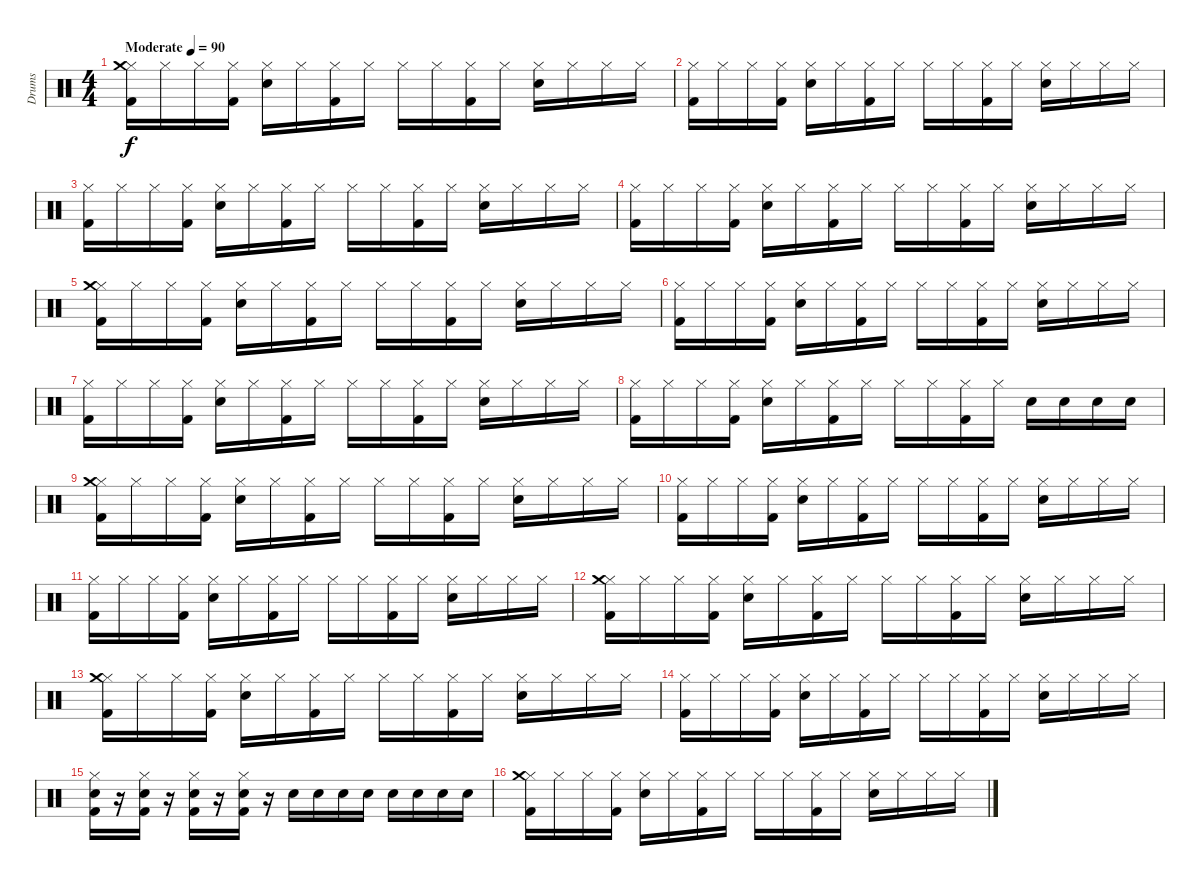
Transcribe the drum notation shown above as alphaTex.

\track ("Drums" "Drums") {instrument percussion}
\staff {score}
\articulation defaults
\ts (4 4)
\tempo (90 "Moderate")
\clef neutral
\ks c
("Hi-Hat (closed)" "Kick (hit) 2" "Crash medium (hit)").16{dy f} "Hi-Hat (closed)".16 "Hi-Hat (closed)".16 ("Hi-Hat (closed)" "Kick (hit) 2").16 ("Hi-Hat (closed)" "Snare (hit) 2").16 "Hi-Hat (closed)".16 ("Hi-Hat (closed)" "Kick (hit) 2").16 "Hi-Hat (closed)".16 "Hi-Hat (closed)".16 "Hi-Hat (closed)".16 ("Hi-Hat (closed)" "Kick (hit) 2").16 "Hi-Hat (closed)".16 ("Hi-Hat (closed)" "Snare (hit) 2").16 "Hi-Hat (closed)".16 "Hi-Hat (closed)".16 "Hi-Hat (closed)".16 |
("Hi-Hat (closed)" "Kick (hit) 2").16 "Hi-Hat (closed)".16 "Hi-Hat (closed)".16 ("Hi-Hat (closed)" "Kick (hit) 2").16 ("Hi-Hat (closed)" "Snare (hit) 2").16 "Hi-Hat (closed)".16 ("Hi-Hat (closed)" "Kick (hit) 2").16 "Hi-Hat (closed)".16 "Hi-Hat (closed)".16 "Hi-Hat (closed)".16 ("Hi-Hat (closed)" "Kick (hit) 2").16 "Hi-Hat (closed)".16 ("Hi-Hat (closed)" "Snare (hit) 2").16 "Hi-Hat (closed)".16 "Hi-Hat (closed)".16 "Hi-Hat (closed)".16 |
("Hi-Hat (closed)" "Kick (hit) 2").16 "Hi-Hat (closed)".16 "Hi-Hat (closed)".16 ("Hi-Hat (closed)" "Kick (hit) 2").16 ("Hi-Hat (closed)" "Snare (hit) 2").16 "Hi-Hat (closed)".16 ("Hi-Hat (closed)" "Kick (hit) 2").16 "Hi-Hat (closed)".16 "Hi-Hat (closed)".16 "Hi-Hat (closed)".16 ("Hi-Hat (closed)" "Kick (hit) 2").16 "Hi-Hat (closed)".16 ("Hi-Hat (closed)" "Snare (hit) 2").16 "Hi-Hat (closed)".16 "Hi-Hat (closed)".16 "Hi-Hat (closed)".16 |
("Hi-Hat (closed)" "Kick (hit) 2").16 "Hi-Hat (closed)".16 "Hi-Hat (closed)".16 ("Hi-Hat (closed)" "Kick (hit) 2").16 ("Hi-Hat (closed)" "Snare (hit) 2").16 "Hi-Hat (closed)".16 ("Hi-Hat (closed)" "Kick (hit) 2").16 "Hi-Hat (closed)".16 "Hi-Hat (closed)".16 "Hi-Hat (closed)".16 ("Hi-Hat (closed)" "Kick (hit) 2").16 "Hi-Hat (closed)".16 ("Hi-Hat (closed)" "Snare (hit) 2").16 "Hi-Hat (closed)".16 "Hi-Hat (closed)".16 "Hi-Hat (closed)".16 |
("Hi-Hat (closed)" "Kick (hit) 2" "Crash medium (hit)").16 "Hi-Hat (closed)".16 "Hi-Hat (closed)".16 ("Hi-Hat (closed)" "Kick (hit) 2").16 ("Hi-Hat (closed)" "Snare (hit) 2").16 "Hi-Hat (closed)".16 ("Hi-Hat (closed)" "Kick (hit) 2").16 "Hi-Hat (closed)".16 "Hi-Hat (closed)".16 "Hi-Hat (closed)".16 ("Hi-Hat (closed)" "Kick (hit) 2").16 "Hi-Hat (closed)".16 ("Hi-Hat (closed)" "Snare (hit) 2").16 "Hi-Hat (closed)".16 "Hi-Hat (closed)".16 "Hi-Hat (closed)".16 |
("Hi-Hat (closed)" "Kick (hit) 2").16 "Hi-Hat (closed)".16 "Hi-Hat (closed)".16 ("Hi-Hat (closed)" "Kick (hit) 2").16 ("Hi-Hat (closed)" "Snare (hit) 2").16 "Hi-Hat (closed)".16 ("Hi-Hat (closed)" "Kick (hit) 2").16 "Hi-Hat (closed)".16 "Hi-Hat (closed)".16 "Hi-Hat (closed)".16 ("Hi-Hat (closed)" "Kick (hit) 2").16 "Hi-Hat (closed)".16 ("Hi-Hat (closed)" "Snare (hit) 2").16 "Hi-Hat (closed)".16 "Hi-Hat (closed)".16 "Hi-Hat (closed)".16 |
("Hi-Hat (closed)" "Kick (hit) 2").16 "Hi-Hat (closed)".16 "Hi-Hat (closed)".16 ("Hi-Hat (closed)" "Kick (hit) 2").16 ("Hi-Hat (closed)" "Snare (hit) 2").16 "Hi-Hat (closed)".16 ("Hi-Hat (closed)" "Kick (hit) 2").16 "Hi-Hat (closed)".16 "Hi-Hat (closed)".16 "Hi-Hat (closed)".16 ("Hi-Hat (closed)" "Kick (hit) 2").16 "Hi-Hat (closed)".16 ("Hi-Hat (closed)" "Snare (hit) 2").16 "Hi-Hat (closed)".16 "Hi-Hat (closed)".16 "Hi-Hat (closed)".16 |
("Hi-Hat (closed)" "Kick (hit) 2").16 "Hi-Hat (closed)".16 "Hi-Hat (closed)".16 ("Hi-Hat (closed)" "Kick (hit) 2").16 ("Hi-Hat (closed)" "Snare (hit) 2").16 "Hi-Hat (closed)".16 ("Hi-Hat (closed)" "Kick (hit) 2").16 "Hi-Hat (closed)".16 "Hi-Hat (closed)".16 "Hi-Hat (closed)".16 ("Hi-Hat (closed)" "Kick (hit) 2").16 "Hi-Hat (closed)".16 "Snare (hit) 2".16 "Snare (hit) 2".16 "Snare (hit) 2".16 "Snare (hit) 2".16 |
("Hi-Hat (closed)" "Kick (hit) 2" "Crash medium (hit)").16 "Hi-Hat (closed)".16 "Hi-Hat (closed)".16 ("Hi-Hat (closed)" "Kick (hit) 2").16 ("Hi-Hat (closed)" "Snare (hit) 2").16 "Hi-Hat (closed)".16 ("Hi-Hat (closed)" "Kick (hit) 2").16 "Hi-Hat (closed)".16 "Hi-Hat (closed)".16 "Hi-Hat (closed)".16 ("Hi-Hat (closed)" "Kick (hit) 2").16 "Hi-Hat (closed)".16 ("Hi-Hat (closed)" "Snare (hit) 2").16 "Hi-Hat (closed)".16 "Hi-Hat (closed)".16 "Hi-Hat (closed)".16 |
("Hi-Hat (closed)" "Kick (hit) 2").16 "Hi-Hat (closed)".16 "Hi-Hat (closed)".16 ("Hi-Hat (closed)" "Kick (hit) 2").16 ("Hi-Hat (closed)" "Snare (hit) 2").16 "Hi-Hat (closed)".16 ("Hi-Hat (closed)" "Kick (hit) 2").16 "Hi-Hat (closed)".16 "Hi-Hat (closed)".16 "Hi-Hat (closed)".16 ("Hi-Hat (closed)" "Kick (hit) 2").16 "Hi-Hat (closed)".16 ("Hi-Hat (closed)" "Snare (hit) 2").16 "Hi-Hat (closed)".16 "Hi-Hat (closed)".16 "Hi-Hat (closed)".16 |
("Hi-Hat (closed)" "Kick (hit) 2").16 "Hi-Hat (closed)".16 "Hi-Hat (closed)".16 ("Hi-Hat (closed)" "Kick (hit) 2").16 ("Hi-Hat (closed)" "Snare (hit) 2").16 "Hi-Hat (closed)".16 ("Hi-Hat (closed)" "Kick (hit) 2").16 "Hi-Hat (closed)".16 "Hi-Hat (closed)".16 "Hi-Hat (closed)".16 ("Hi-Hat (closed)" "Kick (hit) 2").16 "Hi-Hat (closed)".16 ("Hi-Hat (closed)" "Snare (hit) 2").16 "Hi-Hat (closed)".16 "Hi-Hat (closed)".16 "Hi-Hat (closed)".16 |
("Hi-Hat (closed)" "Kick (hit) 2" "Crash medium (hit)").16 "Hi-Hat (closed)".16 "Hi-Hat (closed)".16 ("Hi-Hat (closed)" "Kick (hit) 2").16 ("Hi-Hat (closed)" "Snare (hit) 2").16 "Hi-Hat (closed)".16 ("Hi-Hat (closed)" "Kick (hit) 2").16 "Hi-Hat (closed)".16 "Hi-Hat (closed)".16 "Hi-Hat (closed)".16 ("Hi-Hat (closed)" "Kick (hit) 2").16 "Hi-Hat (closed)".16 ("Hi-Hat (closed)" "Snare (hit) 2").16 "Hi-Hat (closed)".16 "Hi-Hat (closed)".16 "Hi-Hat (closed)".16 |
("Hi-Hat (closed)" "Kick (hit) 2" "Crash medium (hit)").16 "Hi-Hat (closed)".16 "Hi-Hat (closed)".16 ("Hi-Hat (closed)" "Kick (hit) 2").16 ("Hi-Hat (closed)" "Snare (hit) 2").16 "Hi-Hat (closed)".16 ("Hi-Hat (closed)" "Kick (hit) 2").16 "Hi-Hat (closed)".16 "Hi-Hat (closed)".16 "Hi-Hat (closed)".16 ("Hi-Hat (closed)" "Kick (hit) 2").16 "Hi-Hat (closed)".16 ("Hi-Hat (closed)" "Snare (hit) 2").16 "Hi-Hat (closed)".16 "Hi-Hat (closed)".16 "Hi-Hat (closed)".16 |
("Hi-Hat (closed)" "Kick (hit) 2").16 "Hi-Hat (closed)".16 "Hi-Hat (closed)".16 ("Hi-Hat (closed)" "Kick (hit) 2").16 ("Hi-Hat (closed)" "Snare (hit) 2").16 "Hi-Hat (closed)".16 ("Hi-Hat (closed)" "Kick (hit) 2").16 "Hi-Hat (closed)".16 "Hi-Hat (closed)".16 "Hi-Hat (closed)".16 ("Hi-Hat (closed)" "Kick (hit) 2").16 "Hi-Hat (closed)".16 ("Hi-Hat (closed)" "Snare (hit) 2").16 "Hi-Hat (closed)".16 "Hi-Hat (closed)".16 "Hi-Hat (closed)".16 |
("Hi-Hat (closed)" "Kick (hit) 2" "Snare (hit) 2").16 r.16 ("Hi-Hat (closed)" "Kick (hit) 2" "Snare (hit) 2").16 r.16 ("Hi-Hat (closed)" "Kick (hit) 2" "Snare (hit) 2").16 r.16 ("Hi-Hat (closed)" "Kick (hit) 2" "Snare (hit) 2").16 r.16 "Snare (hit) 2".16 "Snare (hit) 2".16 "Snare (hit) 2".16 "Snare (hit) 2".16 "Snare (hit) 2".16 "Snare (hit) 2".16 "Snare (hit) 2".16 "Snare (hit) 2".16 |
("Hi-Hat (closed)" "Kick (hit) 2" "Crash medium (hit)").16 "Hi-Hat (closed)".16 "Hi-Hat (closed)".16 ("Hi-Hat (closed)" "Kick (hit) 2").16 ("Hi-Hat (closed)" "Snare (hit) 2").16 "Hi-Hat (closed)".16 ("Hi-Hat (closed)" "Kick (hit) 2").16 "Hi-Hat (closed)".16 "Hi-Hat (closed)".16 "Hi-Hat (closed)".16 ("Hi-Hat (closed)" "Kick (hit) 2").16 "Hi-Hat (closed)".16 ("Hi-Hat (closed)" "Snare (hit) 2").16 "Hi-Hat (closed)".16 "Hi-Hat (closed)".16 "Hi-Hat (closed)".16
